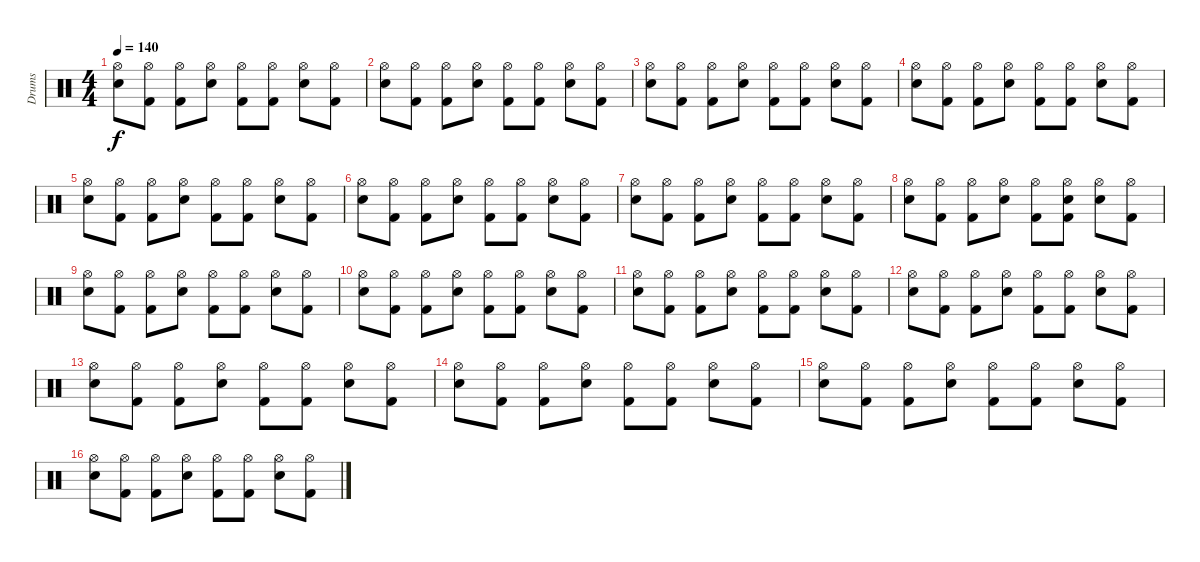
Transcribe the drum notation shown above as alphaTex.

\track ("Drums" "Drums") {instrument percussion}
\staff {score}
\articulation defaults
\ts (4 4)
\tempo 140
\clef neutral
\ks c
("Hi-Hat (open)" "Electric Snare (hit)").8{dy f} ("Hi-Hat (open)" "Kick (hit) 2").8 ("Hi-Hat (open)" "Kick (hit) 2").8 ("Hi-Hat (open)" "Electric Snare (hit)").8 ("Hi-Hat (open)" "Kick (hit) 2").8 ("Hi-Hat (open)" "Kick (hit) 2").8 ("Hi-Hat (open)" "Electric Snare (hit)").8 ("Hi-Hat (open)" "Kick (hit) 2").8 |
("Hi-Hat (open)" "Electric Snare (hit)").8 ("Hi-Hat (open)" "Kick (hit) 2").8 ("Hi-Hat (open)" "Kick (hit) 2").8 ("Hi-Hat (open)" "Electric Snare (hit)").8 ("Hi-Hat (open)" "Kick (hit) 2").8 ("Hi-Hat (open)" "Kick (hit) 2").8 ("Hi-Hat (open)" "Electric Snare (hit)").8 ("Hi-Hat (open)" "Kick (hit) 2").8 |
("Hi-Hat (open)" "Electric Snare (hit)").8 ("Hi-Hat (open)" "Kick (hit) 2").8 ("Hi-Hat (open)" "Kick (hit) 2").8 ("Hi-Hat (open)" "Electric Snare (hit)").8 ("Hi-Hat (open)" "Kick (hit) 2").8 ("Hi-Hat (open)" "Kick (hit) 2").8 ("Hi-Hat (open)" "Electric Snare (hit)").8 ("Hi-Hat (open)" "Kick (hit) 2").8 |
("Hi-Hat (open)" "Electric Snare (hit)").8 ("Hi-Hat (open)" "Kick (hit) 2").8 ("Hi-Hat (open)" "Kick (hit) 2").8 ("Hi-Hat (open)" "Electric Snare (hit)").8 ("Hi-Hat (open)" "Kick (hit) 2").8 ("Hi-Hat (open)" "Kick (hit) 2").8 ("Hi-Hat (open)" "Electric Snare (hit)").8 ("Hi-Hat (open)" "Kick (hit) 2").8 |
("Hi-Hat (open)" "Electric Snare (hit)").8 ("Hi-Hat (open)" "Kick (hit) 2").8 ("Hi-Hat (open)" "Kick (hit) 2").8 ("Hi-Hat (open)" "Electric Snare (hit)").8 ("Hi-Hat (open)" "Kick (hit) 2").8 ("Hi-Hat (open)" "Kick (hit) 2").8 ("Hi-Hat (open)" "Electric Snare (hit)").8 ("Hi-Hat (open)" "Kick (hit) 2").8 |
("Hi-Hat (open)" "Electric Snare (hit)").8 ("Hi-Hat (open)" "Kick (hit) 2").8 ("Hi-Hat (open)" "Kick (hit) 2").8 ("Hi-Hat (open)" "Electric Snare (hit)").8 ("Hi-Hat (open)" "Kick (hit) 2").8 ("Hi-Hat (open)" "Kick (hit) 2").8 ("Hi-Hat (open)" "Electric Snare (hit)").8 ("Hi-Hat (open)" "Kick (hit) 2").8 |
("Hi-Hat (open)" "Electric Snare (hit)").8 ("Hi-Hat (open)" "Kick (hit) 2").8 ("Hi-Hat (open)" "Kick (hit) 2").8 ("Hi-Hat (open)" "Electric Snare (hit)").8 ("Hi-Hat (open)" "Kick (hit) 2").8 ("Hi-Hat (open)" "Kick (hit) 2").8 ("Hi-Hat (open)" "Electric Snare (hit)").8 ("Hi-Hat (open)" "Kick (hit) 2").8 |
("Hi-Hat (open)" "Electric Snare (hit)").8 ("Hi-Hat (open)" "Kick (hit) 2").8 ("Hi-Hat (open)" "Kick (hit) 2").8 ("Hi-Hat (open)" "Electric Snare (hit)").8 ("Hi-Hat (open)" "Kick (hit) 2").8 ("Hi-Hat (open)" "Electric Snare (hit)" "Kick (hit) 2").8 ("Hi-Hat (open)" "Electric Snare (hit)").8 ("Hi-Hat (open)" "Kick (hit) 2").8 |
("Hi-Hat (open)" "Electric Snare (hit)").8 ("Hi-Hat (open)" "Kick (hit) 2").8 ("Hi-Hat (open)" "Kick (hit) 2").8 ("Hi-Hat (open)" "Electric Snare (hit)").8 ("Hi-Hat (open)" "Kick (hit) 2").8 ("Hi-Hat (open)" "Kick (hit) 2").8 ("Hi-Hat (open)" "Electric Snare (hit)").8 ("Hi-Hat (open)" "Kick (hit) 2").8 |
("Hi-Hat (open)" "Electric Snare (hit)").8 ("Hi-Hat (open)" "Kick (hit) 2").8 ("Hi-Hat (open)" "Kick (hit) 2").8 ("Hi-Hat (open)" "Electric Snare (hit)").8 ("Hi-Hat (open)" "Kick (hit) 2").8 ("Hi-Hat (open)" "Kick (hit) 2").8 ("Hi-Hat (open)" "Electric Snare (hit)").8 ("Hi-Hat (open)" "Kick (hit) 2").8 |
("Hi-Hat (open)" "Electric Snare (hit)").8 ("Hi-Hat (open)" "Kick (hit) 2").8 ("Hi-Hat (open)" "Kick (hit) 2").8 ("Hi-Hat (open)" "Electric Snare (hit)").8 ("Hi-Hat (open)" "Kick (hit) 2").8 ("Hi-Hat (open)" "Kick (hit) 2").8 ("Hi-Hat (open)" "Electric Snare (hit)").8 ("Hi-Hat (open)" "Kick (hit) 2").8 |
("Hi-Hat (open)" "Electric Snare (hit)").8 ("Hi-Hat (open)" "Kick (hit) 2").8 ("Hi-Hat (open)" "Kick (hit) 2").8 ("Hi-Hat (open)" "Electric Snare (hit)").8 ("Hi-Hat (open)" "Kick (hit) 2").8 ("Hi-Hat (open)" "Kick (hit) 2").8 ("Hi-Hat (open)" "Electric Snare (hit)").8 ("Hi-Hat (open)" "Kick (hit) 2").8 |
("Hi-Hat (open)" "Electric Snare (hit)").8 ("Hi-Hat (open)" "Kick (hit) 2").8 ("Hi-Hat (open)" "Kick (hit) 2").8 ("Hi-Hat (open)" "Electric Snare (hit)").8 ("Hi-Hat (open)" "Kick (hit) 2").8 ("Hi-Hat (open)" "Kick (hit) 2").8 ("Hi-Hat (open)" "Electric Snare (hit)").8 ("Hi-Hat (open)" "Kick (hit) 2").8 |
("Hi-Hat (open)" "Electric Snare (hit)").8 ("Hi-Hat (open)" "Kick (hit) 2").8 ("Hi-Hat (open)" "Kick (hit) 2").8 ("Hi-Hat (open)" "Electric Snare (hit)").8 ("Hi-Hat (open)" "Kick (hit) 2").8 ("Hi-Hat (open)" "Kick (hit) 2").8 ("Hi-Hat (open)" "Electric Snare (hit)").8 ("Hi-Hat (open)" "Kick (hit) 2").8 |
("Hi-Hat (open)" "Electric Snare (hit)").8 ("Hi-Hat (open)" "Kick (hit) 2").8 ("Hi-Hat (open)" "Kick (hit) 2").8 ("Hi-Hat (open)" "Electric Snare (hit)").8 ("Hi-Hat (open)" "Kick (hit) 2").8 ("Hi-Hat (open)" "Kick (hit) 2").8 ("Hi-Hat (open)" "Electric Snare (hit)").8 ("Hi-Hat (open)" "Kick (hit) 2").8 |
("Hi-Hat (open)" "Electric Snare (hit)").8 ("Hi-Hat (open)" "Kick (hit) 2").8 ("Hi-Hat (open)" "Kick (hit) 2").8 ("Hi-Hat (open)" "Electric Snare (hit)").8 ("Hi-Hat (open)" "Kick (hit) 2").8 ("Hi-Hat (open)" "Kick (hit) 2").8 ("Hi-Hat (open)" "Electric Snare (hit)").8 ("Hi-Hat (open)" "Kick (hit) 2").8
